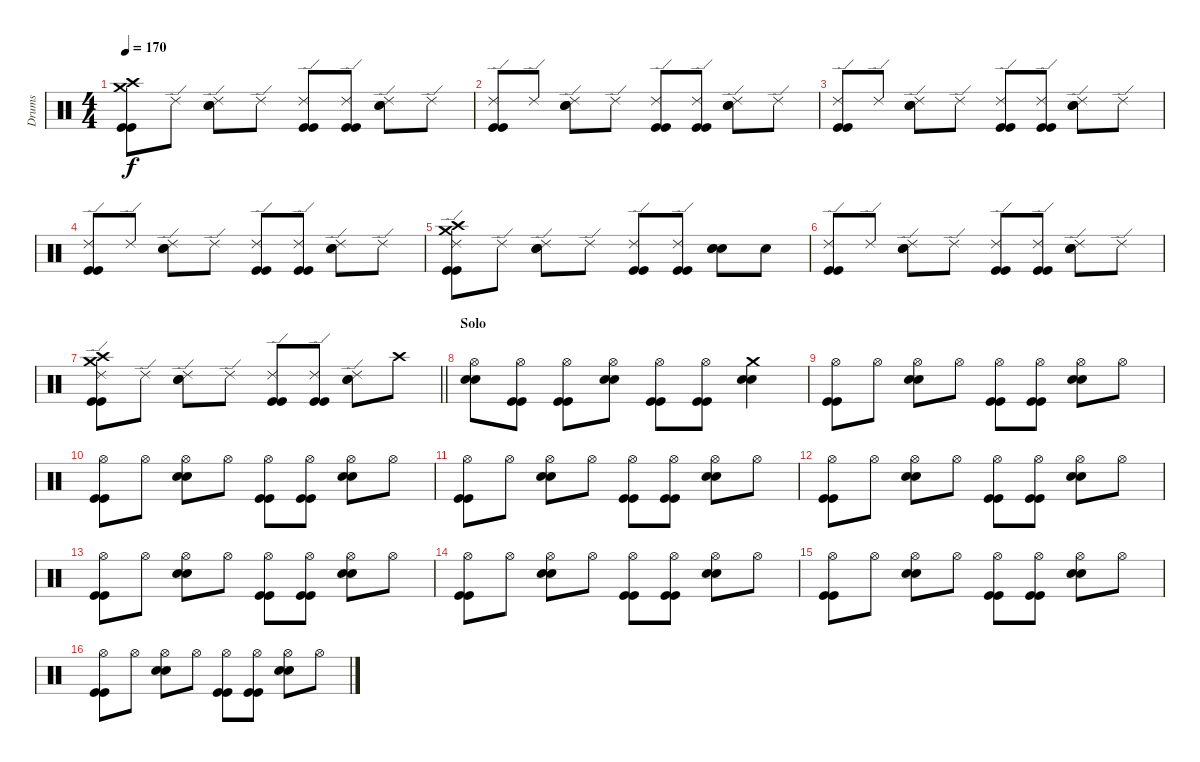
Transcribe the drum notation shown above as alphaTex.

\track ("Drums" "Drums") {instrument percussion}
\staff {score}
\articulation defaults
\ts (4 4)
\tempo 170
\clef neutral
\ks c
("Crash high (hit)" "Crash medium (hit)" "Kick (hit)" "Kick (hit)").8{dy f} "Ride (edge) 2".8 ("Ride (edge) 2" "Snare (hit) 2" "Snare (hit) 2").8 "Ride (edge) 2".8 ("Ride (edge) 2" "Kick (hit)" "Kick (hit)").8 ("Ride (edge) 2" "Kick (hit)" "Kick (hit)").8 ("Ride (edge) 2" "Snare (hit) 2" "Snare (hit) 2").8 "Ride (edge) 2".8 |
("Ride (edge) 2" "Kick (hit)" "Kick (hit)").8 "Ride (edge) 2".8 ("Ride (edge) 2" "Snare (hit) 2" "Snare (hit) 2").8 "Ride (edge) 2".8 ("Ride (edge) 2" "Kick (hit)" "Kick (hit)").8 ("Ride (edge) 2" "Kick (hit)" "Kick (hit)").8 ("Ride (edge) 2" "Snare (hit) 2" "Snare (hit) 2").8 "Ride (edge) 2".8 |
("Ride (edge) 2" "Kick (hit)" "Kick (hit)").8 "Ride (edge) 2".8 ("Ride (edge) 2" "Snare (hit) 2" "Snare (hit) 2").8 "Ride (edge) 2".8 ("Ride (edge) 2" "Kick (hit)" "Kick (hit)").8 ("Ride (edge) 2" "Kick (hit)" "Kick (hit)").8 ("Ride (edge) 2" "Snare (hit) 2" "Snare (hit) 2").8 "Ride (edge) 2".8 |
("Ride (edge) 2" "Kick (hit)" "Kick (hit)").8 "Ride (edge) 2".8 ("Ride (edge) 2" "Snare (hit) 2" "Snare (hit) 2").8 "Ride (edge) 2".8 ("Ride (edge) 2" "Kick (hit)" "Kick (hit)").8 ("Ride (edge) 2" "Kick (hit)" "Kick (hit)").8 ("Ride (edge) 2" "Snare (hit) 2" "Snare (hit) 2").8 "Ride (edge) 2".8 |
("Ride (edge) 2" "Crash high (hit)" "Crash medium (hit)" "Kick (hit)" "Kick (hit)").8 "Ride (edge) 2".8 ("Ride (edge) 2" "Snare (hit) 2" "Snare (hit) 2").8 "Ride (edge) 2".8 ("Ride (edge) 2" "Kick (hit)" "Kick (hit)").8 ("Ride (edge) 2" "Kick (hit)" "Kick (hit)").8 ("Snare (hit)" "Snare (hit) 2" "Snare (hit) 2").8 "Snare (hit)".8 |
("Ride (edge) 2" "Kick (hit)" "Kick (hit)").8 "Ride (edge) 2".8 ("Ride (edge) 2" "Snare (hit) 2" "Snare (hit) 2").8 "Ride (edge) 2".8 ("Ride (edge) 2" "Kick (hit)" "Kick (hit)").8 ("Ride (edge) 2" "Kick (hit)" "Kick (hit)").8 ("Ride (edge) 2" "Snare (hit) 2" "Snare (hit) 2").8 "Ride (edge) 2".8 |
\barLineRight lightlight
("Ride (edge) 2" "Crash high (hit)" "Crash medium (hit)" "Kick (hit)" "Kick (hit)").8 "Ride (edge) 2".8 ("Ride (edge) 2" "Snare (hit) 2" "Snare (hit) 2").8 "Ride (edge) 2".8 ("Ride (edge) 2" "Kick (hit)" "Kick (hit)").8 ("Ride (edge) 2" "Kick (hit)" "Kick (hit)").8 ("Ride (edge) 2" "Snare (hit) 2" "Snare (hit) 2").8 "Crash high (hit)".8 |
\section ("" "Solo")
("Hi-Hat (open)" "Snare (hit) 2" "Snare (hit) 2").8 ("Hi-Hat (open)" "Kick (hit)" "Kick (hit)").8 ("Hi-Hat (open)" "Kick (hit)" "Kick (hit)").8 ("Hi-Hat (open)" "Snare (hit) 2" "Snare (hit) 2").8 ("Hi-Hat (open)" "Kick (hit)" "Kick (hit)").8 ("Hi-Hat (open)" "Kick (hit)" "Kick (hit)").8 ("Crash medium (hit)" "Snare (hit) 2" "Snare (hit) 2").4 |
("Hi-Hat (open)" "Kick (hit)" "Kick (hit)").8 "Hi-Hat (open)".8 ("Hi-Hat (open)" "Snare (hit) 2" "Snare (hit) 2").8 "Hi-Hat (open)".8 ("Hi-Hat (open)" "Kick (hit)" "Kick (hit)").8 ("Hi-Hat (open)" "Kick (hit)" "Kick (hit)").8 ("Hi-Hat (open)" "Snare (hit) 2" "Snare (hit) 2").8 "Hi-Hat (open)".8 |
("Hi-Hat (open)" "Kick (hit)" "Kick (hit)").8 "Hi-Hat (open)".8 ("Hi-Hat (open)" "Snare (hit) 2" "Snare (hit) 2").8 "Hi-Hat (open)".8 ("Hi-Hat (open)" "Kick (hit)" "Kick (hit)").8 ("Hi-Hat (open)" "Kick (hit)" "Kick (hit)").8 ("Hi-Hat (open)" "Snare (hit) 2" "Snare (hit) 2").8 "Hi-Hat (open)".8 |
("Hi-Hat (open)" "Kick (hit)" "Kick (hit)").8 "Hi-Hat (open)".8 ("Hi-Hat (open)" "Snare (hit) 2" "Snare (hit) 2").8 "Hi-Hat (open)".8 ("Hi-Hat (open)" "Kick (hit)" "Kick (hit)").8 ("Hi-Hat (open)" "Kick (hit)" "Kick (hit)").8 ("Hi-Hat (open)" "Snare (hit) 2" "Snare (hit) 2").8 "Hi-Hat (open)".8 |
("Hi-Hat (open)" "Kick (hit)" "Kick (hit)").8 "Hi-Hat (open)".8 ("Hi-Hat (open)" "Snare (hit) 2" "Snare (hit) 2").8 "Hi-Hat (open)".8 ("Hi-Hat (open)" "Kick (hit)" "Kick (hit)").8 ("Hi-Hat (open)" "Kick (hit)" "Kick (hit)").8 ("Hi-Hat (open)" "Snare (hit) 2" "Snare (hit) 2").8 "Hi-Hat (open)".8 |
("Hi-Hat (open)" "Kick (hit)" "Kick (hit)").8 "Hi-Hat (open)".8 ("Hi-Hat (open)" "Snare (hit) 2" "Snare (hit) 2").8 "Hi-Hat (open)".8 ("Hi-Hat (open)" "Kick (hit)" "Kick (hit)").8 ("Hi-Hat (open)" "Kick (hit)" "Kick (hit)").8 ("Hi-Hat (open)" "Snare (hit) 2" "Snare (hit) 2").8 "Hi-Hat (open)".8 |
("Hi-Hat (open)" "Kick (hit)" "Kick (hit)").8 "Hi-Hat (open)".8 ("Hi-Hat (open)" "Snare (hit) 2" "Snare (hit) 2").8 "Hi-Hat (open)".8 ("Hi-Hat (open)" "Kick (hit)" "Kick (hit)").8 ("Hi-Hat (open)" "Kick (hit)" "Kick (hit)").8 ("Hi-Hat (open)" "Snare (hit) 2" "Snare (hit) 2").8 "Hi-Hat (open)".8 |
("Hi-Hat (open)" "Kick (hit)" "Kick (hit)").8 "Hi-Hat (open)".8 ("Hi-Hat (open)" "Snare (hit) 2" "Snare (hit) 2").8 "Hi-Hat (open)".8 ("Hi-Hat (open)" "Kick (hit)" "Kick (hit)").8 ("Hi-Hat (open)" "Kick (hit)" "Kick (hit)").8 ("Hi-Hat (open)" "Snare (hit) 2" "Snare (hit) 2").8 "Hi-Hat (open)".8 |
("Hi-Hat (open)" "Kick (hit)" "Kick (hit)").8 "Hi-Hat (open)".8 ("Hi-Hat (open)" "Snare (hit) 2" "Snare (hit) 2").8 "Hi-Hat (open)".8 ("Hi-Hat (open)" "Kick (hit)" "Kick (hit)").8 ("Hi-Hat (open)" "Kick (hit)" "Kick (hit)").8 ("Hi-Hat (open)" "Snare (hit) 2" "Snare (hit) 2").8 "Hi-Hat (open)".8
